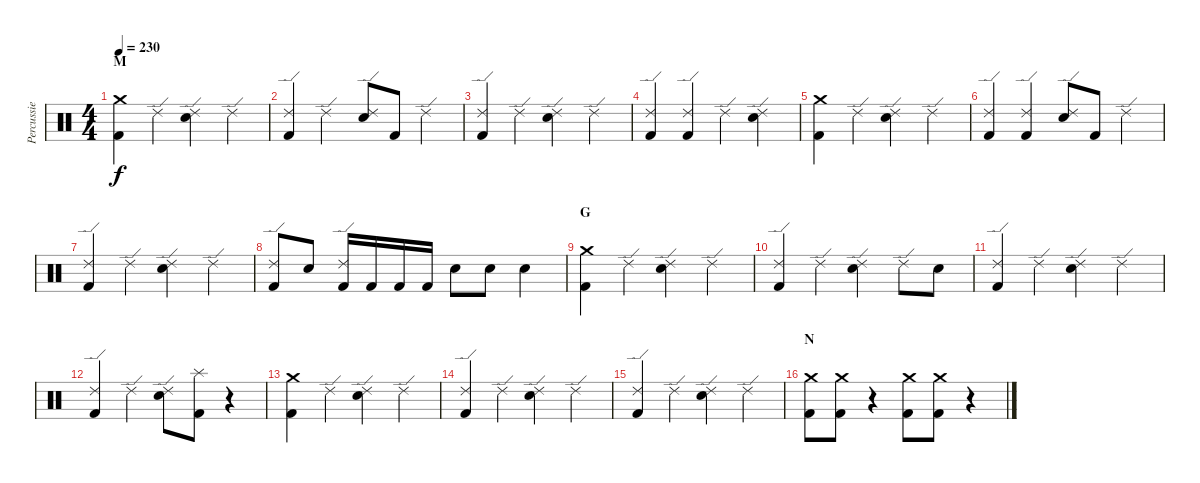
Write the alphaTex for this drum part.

\track ("Percussie" "Percussie") {instrument percussion}
\staff {score}
\articulation defaults
\ts (4 4)
\section ("" "M")
\tempo 230
\clef neutral
\ks c
("Crash medium (hit)" "Kick (hit) 2").4{dy f} "Ride (edge) 2".4 ("Ride (edge) 2" "Electric Snare (hit)").4 "Ride (edge) 2".4 |
("Ride (edge) 2" "Kick (hit) 2").4 "Ride (edge) 2".4 ("Ride (edge) 2" "Electric Snare (hit)").8 "Kick (hit) 2".8 "Ride (edge) 2".4 |
("Ride (edge) 2" "Kick (hit) 2").4 "Ride (edge) 2".4 ("Ride (edge) 2" "Electric Snare (hit)").4 "Ride (edge) 2".4 |
("Ride (edge) 2" "Kick (hit) 2").4 ("Ride (edge) 2" "Kick (hit) 2").4 "Ride (edge) 2".4 ("Ride (edge) 2" "Electric Snare (hit)").4 |
("Crash medium (hit)" "Kick (hit) 2").4 "Ride (edge) 2".4 ("Ride (edge) 2" "Electric Snare (hit)").4 "Ride (edge) 2".4 |
("Ride (edge) 2" "Kick (hit) 2").4 ("Ride (edge) 2" "Kick (hit) 2").4 ("Ride (edge) 2" "Electric Snare (hit)").8 "Kick (hit) 2".8 "Ride (edge) 2".4 |
("Ride (edge) 2" "Kick (hit) 2").4 "Ride (edge) 2".4 ("Ride (edge) 2" "Electric Snare (hit)").4 "Ride (edge) 2".4 |
("Ride (edge) 2" "Kick (hit) 2").8 "Electric Snare (hit)".8 ("Ride (edge) 2" "Kick (hit) 2").16 "Kick (hit) 2".16 "Kick (hit) 2".16 "Kick (hit) 2".16 "Electric Snare (hit)".8 "Electric Snare (hit)".8 "Electric Snare (hit)".4 |
\section ("" "G")
("Crash medium (hit)" "Kick (hit) 2").4 "Ride (edge) 2".4 ("Ride (edge) 2" "Electric Snare (hit)").4 "Ride (edge) 2".4 |
("Ride (edge) 2" "Kick (hit) 2").4 "Ride (edge) 2".4 ("Ride (edge) 2" "Electric Snare (hit)").4 "Ride (edge) 2".8 "Electric Snare (hit)".8 |
("Ride (edge) 2" "Kick (hit) 2").4 "Ride (edge) 2".4 ("Ride (edge) 2" "Electric Snare (hit)").4 "Ride (edge) 2".4 |
("Ride (edge) 2" "Kick (hit) 2").4 "Ride (edge) 2".4 ("Ride (edge) 2" "Electric Snare (hit)").8 ("Splash (hit)" "Kick (hit) 2").8 r.4 |
("Crash medium (hit)" "Kick (hit) 2").4 "Ride (edge) 2".4 ("Ride (edge) 2" "Electric Snare (hit)").4 "Ride (edge) 2".4 |
("Ride (edge) 2" "Kick (hit) 2").4 "Ride (edge) 2".4 ("Ride (edge) 2" "Electric Snare (hit)").4 "Ride (edge) 2".4 |
("Ride (edge) 2" "Kick (hit) 2").4 "Ride (edge) 2".4 ("Ride (edge) 2" "Electric Snare (hit)").4 "Ride (edge) 2".4 |
\section ("" "N")
("Crash medium (hit)" "Kick (hit) 2").8 ("Crash medium (hit)" "Kick (hit) 2").8 r.4 ("Crash medium (hit)" "Kick (hit) 2").8 ("Crash medium (hit)" "Kick (hit) 2").8 r.4
